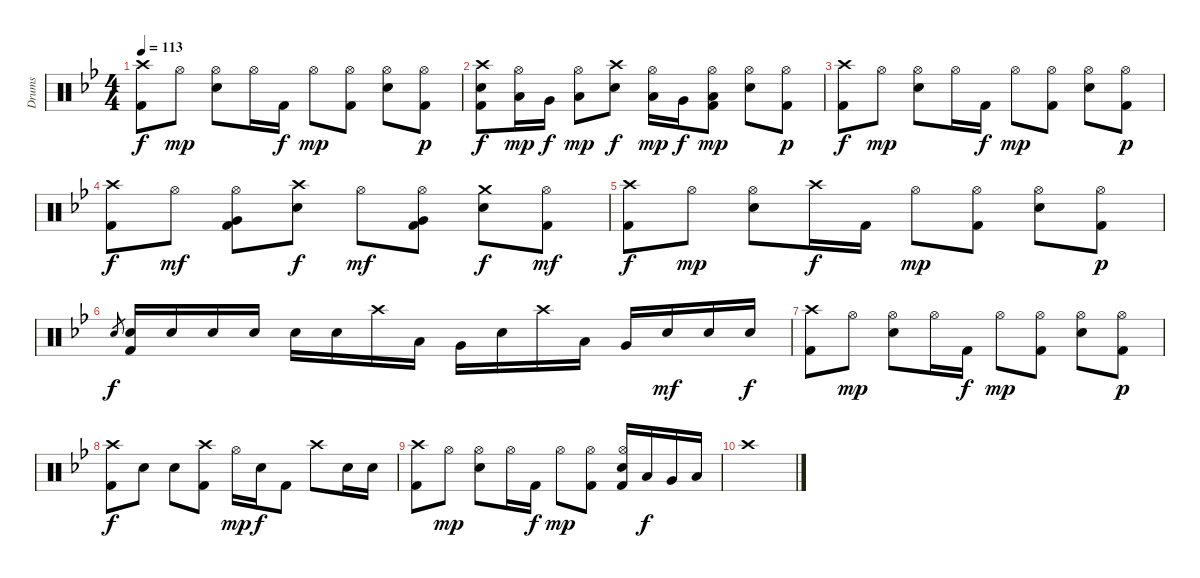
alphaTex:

\track ("Drums" "Drums") {instrument percussion}
\staff {score}
\articulation defaults
\ts (4 4)
\tempo 113
\clef neutral
\ks bb
("Crash high (hit)" "Kick (hit) 2").8{dy f} "Hi-Hat (open)".8{dy mp} ("Hi-Hat (open)" "Electric Snare (hit)").8 "Hi-Hat (open)".16 "Kick (hit) 2".16{dy f} "Hi-Hat (open)".8{dy mp} ("Hi-Hat (open)" "Kick (hit) 2").8 ("Hi-Hat (open)" "Electric Snare (hit)").8 ("Hi-Hat (open)" "Kick (hit) 2").8{dy p} |
("Crash high (hit)" "Electric Snare (hit)" "Kick (hit) 2").8{dy f} ("Hi-Hat (open)" "Low Tom (hit)").16{dy mp} "Very Low Tom (hit)".16{dy f} ("Hi-Hat (open)" "Low Floor Tom (hit)").8{dy mp} ("Crash high (hit)" "Electric Snare (hit)").8{dy f} ("Hi-Hat (open)" "Low Tom (hit)").16{dy mp} "Very Low Tom (hit)".16{dy f} ("Hi-Hat (open)" "Low Floor Tom (hit)" "Kick (hit) 2").8{dy mp} ("Hi-Hat (open)" "Electric Snare (hit)").8 ("Hi-Hat (open)" "Kick (hit) 2").8{dy p} |
("Crash high (hit)" "Kick (hit) 2").8{dy f} "Hi-Hat (open)".8{dy mp} ("Hi-Hat (open)" "Electric Snare (hit)").8 "Hi-Hat (open)".16 "Kick (hit) 2".16{dy f} "Hi-Hat (open)".8{dy mp} ("Hi-Hat (open)" "Kick (hit) 2").8 ("Hi-Hat (open)" "Electric Snare (hit)").8 ("Hi-Hat (open)" "Kick (hit) 2").8{dy p} |
("Crash high (hit)" "Kick (hit) 2").8{dy f} "Hi-Hat (open)".8{dy mf} ("Hi-Hat (open)" "Very Low Tom (hit)" "Kick (hit) 2").8 ("Crash high (hit)" "Electric Snare (hit)").8{dy f} "Hi-Hat (open)".8{dy mf} ("Hi-Hat (open)" "Very Low Tom (hit)" "Kick (hit) 2").8 ("Crash medium (hit)" "Electric Snare (hit)").8{dy f} ("Hi-Hat (open)" "Kick (hit) 2").8{dy mf} |
("Crash high (hit)" "Kick (hit) 2").8{dy f} "Hi-Hat (open)".8{dy mp} ("Hi-Hat (open)" "Electric Snare (hit)").8 "Crash high (hit)".16{dy f} "Kick (hit) 2".16 "Hi-Hat (open)".8{dy mp} ("Hi-Hat (open)" "Kick (hit) 2").8 ("Hi-Hat (open)" "Electric Snare (hit)").8 ("Hi-Hat (open)" "Kick (hit) 2").8{dy p} |
"Electric Snare (hit)".8{gr dy f} ("Electric Snare (hit)" "Kick (hit) 2").16 "Electric Snare (hit)".16 "Electric Snare (hit)".16 "Electric Snare (hit)".16 "Electric Snare (hit)".16 "Electric Snare (hit)".16 "Crash high (hit)".16 "Low Tom (hit)".16 "Very Low Tom (hit)".16 "Electric Snare (hit)".16 "Crash high (hit)".16 "Low Tom (hit)".16 "Very Low Tom (hit)".16 "Electric Snare (hit)".16{dy mf} "Electric Snare (hit)".16 "Electric Snare (hit)".16{dy f} |
("Crash high (hit)" "Kick (hit) 2").8 "Hi-Hat (open)".8{dy mp} ("Hi-Hat (open)" "Electric Snare (hit)").8 "Hi-Hat (open)".16 "Kick (hit) 2".16{dy f} "Hi-Hat (open)".8{dy mp} ("Hi-Hat (open)" "Kick (hit) 2").8 ("Hi-Hat (open)" "Electric Snare (hit)").8 ("Hi-Hat (open)" "Kick (hit) 2").8{dy p} |
("Crash high (hit)" "Kick (hit) 2").8{dy f} "Electric Snare (hit)".8 "Electric Snare (hit)".8 ("Crash high (hit)" "Kick (hit) 2").8 "Hi-Hat (open)".16{dy mp} "Electric Snare (hit)".16{dy f} "Kick (hit) 2".8 "Crash high (hit)".8 "Electric Snare (hit)".16 "Electric Snare (hit)".16 |
("Crash high (hit)" "Kick (hit) 2").8 "Hi-Hat (open)".8{dy mp} ("Hi-Hat (open)" "Electric Snare (hit)").8 "Hi-Hat (open)".16 "Kick (hit) 2".16{dy f} "Hi-Hat (open)".8{dy mp} ("Hi-Hat (open)" "Kick (hit) 2").8 ("Hi-Hat (open)" "Electric Snare (hit)" "Kick (hit) 2").16 "Low Tom (hit)".16{dy f} "Very Low Tom (hit)".16 "Low Floor Tom (hit)".16 |
"Crash high (hit)".1
